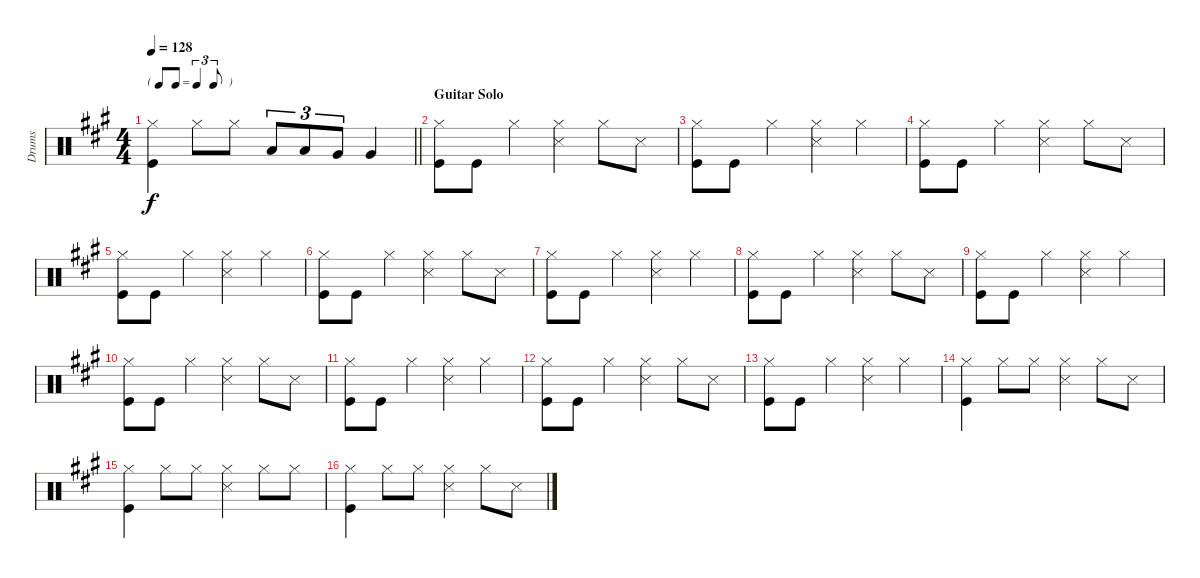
\track ("Drums" "Drums") {instrument percussion}
\staff {score}
\articulation defaults
\ts (4 4)
\tf triplet8th
\tempo 128
\clef neutral
\barLineRight lightlight
\ks a
("Hi-Hat (closed)" "Kick (hit)").4{dy f} "Hi-Hat (closed)".8 "Hi-Hat (closed)".8 "Low Tom (hit)".8{tu (3 2)} "Low Tom (hit)".8{tu (3 2)} "Very Low Tom (hit)".8{tu (3 2)} "Very Low Tom (hit)".4 |
\section ("" "Guitar Solo")
("Hi-Hat (closed)" "Kick (hit)").8 "Kick (hit)".8 "Hi-Hat (closed)".4 ("Hi-Hat (closed)" "Snare (side stick) 3").4 "Hi-Hat (closed)".8 "Snare (side stick) 3".8 |
("Hi-Hat (closed)" "Kick (hit)").8 "Kick (hit)".8 "Hi-Hat (closed)".4 ("Hi-Hat (closed)" "Snare (side stick) 3").4 "Hi-Hat (closed)".4 |
("Hi-Hat (closed)" "Kick (hit)").8 "Kick (hit)".8 "Hi-Hat (closed)".4 ("Hi-Hat (closed)" "Snare (side stick) 3").4 "Hi-Hat (closed)".8 "Snare (side stick) 3".8 |
("Hi-Hat (closed)" "Kick (hit)").8 "Kick (hit)".8 "Hi-Hat (closed)".4 ("Hi-Hat (closed)" "Snare (side stick) 3").4 "Hi-Hat (closed)".4 |
("Hi-Hat (closed)" "Kick (hit)").8 "Kick (hit)".8 "Hi-Hat (closed)".4 ("Hi-Hat (closed)" "Snare (side stick) 3").4 "Hi-Hat (closed)".8 "Snare (side stick) 3".8 |
("Hi-Hat (closed)" "Kick (hit)").8 "Kick (hit)".8 "Hi-Hat (closed)".4 ("Hi-Hat (closed)" "Snare (side stick) 3").4 "Hi-Hat (closed)".4 |
("Hi-Hat (closed)" "Kick (hit)").8 "Kick (hit)".8 "Hi-Hat (closed)".4 ("Hi-Hat (closed)" "Snare (side stick) 3").4 "Hi-Hat (closed)".8 "Snare (side stick) 3".8 |
("Hi-Hat (closed)" "Kick (hit)").8 "Kick (hit)".8 "Hi-Hat (closed)".4 ("Hi-Hat (closed)" "Snare (side stick) 3").4 "Hi-Hat (closed)".4 |
("Hi-Hat (closed)" "Kick (hit)").8 "Kick (hit)".8 "Hi-Hat (closed)".4 ("Hi-Hat (closed)" "Snare (side stick) 3").4 "Hi-Hat (closed)".8 "Snare (side stick) 3".8 |
("Hi-Hat (closed)" "Kick (hit)").8 "Kick (hit)".8 "Hi-Hat (closed)".4 ("Hi-Hat (closed)" "Snare (side stick) 3").4 "Hi-Hat (closed)".4 |
("Hi-Hat (closed)" "Kick (hit)").8 "Kick (hit)".8 "Hi-Hat (closed)".4 ("Hi-Hat (closed)" "Snare (side stick) 3").4 "Hi-Hat (closed)".8 "Snare (side stick) 3".8 |
("Hi-Hat (closed)" "Kick (hit)").8 "Kick (hit)".8 "Hi-Hat (closed)".4 ("Hi-Hat (closed)" "Snare (side stick) 3").4 "Hi-Hat (closed)".4 |
("Hi-Hat (closed)" "Kick (hit)").4 "Hi-Hat (closed)".8 "Hi-Hat (closed)".8 ("Hi-Hat (closed)" "Snare (side stick) 3").4 "Hi-Hat (closed)".8 "Snare (side stick) 3".8 |
("Hi-Hat (closed)" "Kick (hit)").4 "Hi-Hat (closed)".8 "Hi-Hat (closed)".8 ("Hi-Hat (closed)" "Snare (side stick) 3").4 "Hi-Hat (closed)".8 "Hi-Hat (closed)".8 |
("Hi-Hat (closed)" "Kick (hit)").4 "Hi-Hat (closed)".8 "Hi-Hat (closed)".8 ("Hi-Hat (closed)" "Snare (side stick) 3").4 "Hi-Hat (closed)".8 "Snare (side stick) 3".8
